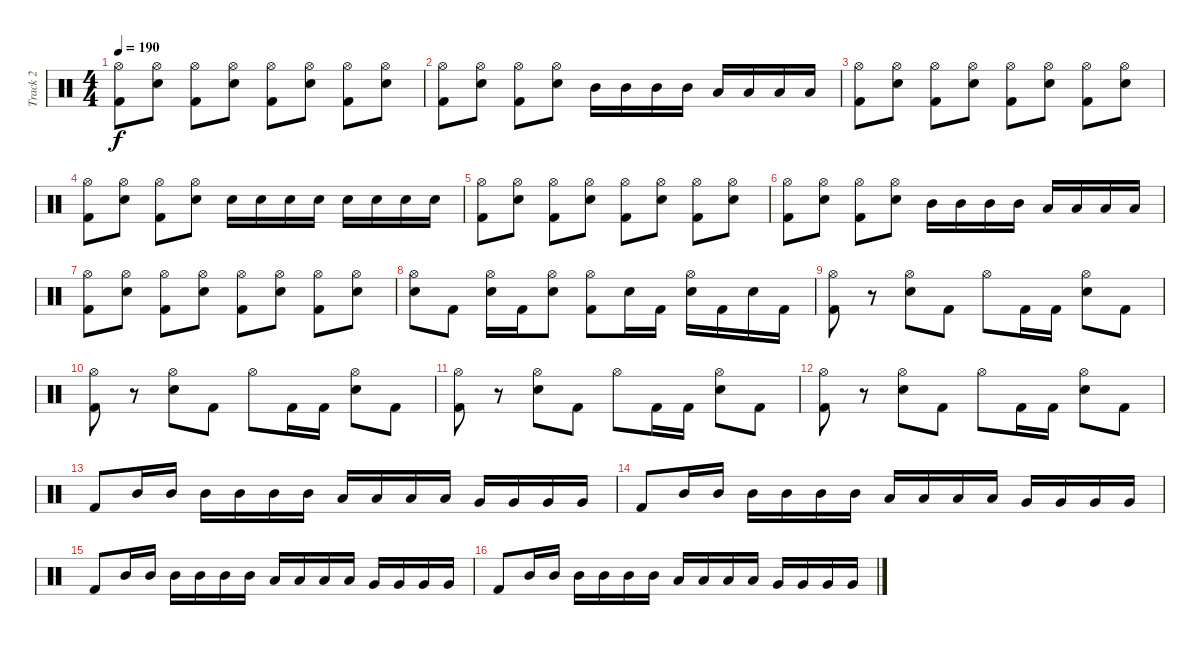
\track ("Track 2" "Track 2") {instrument percussion}
\staff {score}
\articulation defaults
\ts (4 4)
\tempo 190
\clef neutral
\ks c
("Hi-Hat (open)" "Kick (hit) 2").8{dy f} ("Hi-Hat (open)" "Snare (hit) 2").8 ("Hi-Hat (open)" "Kick (hit) 2").8 ("Hi-Hat (open)" "Snare (hit) 2").8 ("Hi-Hat (open)" "Kick (hit) 2").8 ("Hi-Hat (open)" "Snare (hit) 2").8 ("Hi-Hat (open)" "Kick (hit) 2").8 ("Hi-Hat (open)" "Snare (hit) 2").8 |
("Hi-Hat (open)" "Kick (hit) 2").8 ("Hi-Hat (open)" "Snare (hit) 2").8 ("Hi-Hat (open)" "Kick (hit) 2").8 ("Hi-Hat (open)" "Snare (hit) 2").8 "Mid Tom (hit)".16 "Mid Tom (hit)".16 "Mid Tom (hit)".16 "Mid Tom (hit)".16 "Low Tom (hit)".16 "Low Tom (hit)".16 "Low Tom (hit)".16 "Low Tom (hit)".16 |
("Hi-Hat (open)" "Kick (hit) 2").8 ("Hi-Hat (open)" "Snare (hit) 2").8 ("Hi-Hat (open)" "Kick (hit) 2").8 ("Hi-Hat (open)" "Snare (hit) 2").8 ("Hi-Hat (open)" "Kick (hit) 2").8 ("Hi-Hat (open)" "Snare (hit) 2").8 ("Hi-Hat (open)" "Kick (hit) 2").8 ("Hi-Hat (open)" "Snare (hit) 2").8 |
("Hi-Hat (open)" "Kick (hit) 2").8 ("Hi-Hat (open)" "Snare (hit) 2").8 ("Hi-Hat (open)" "Kick (hit) 2").8 ("Hi-Hat (open)" "Snare (hit) 2").8 "Snare (hit) 2".16 "Snare (hit) 2".16 "Snare (hit) 2".16 "Snare (hit) 2".16 "Snare (hit) 2".16 "Snare (hit) 2".16 "Snare (hit) 2".16 "Snare (hit) 2".16 |
("Hi-Hat (open)" "Kick (hit) 2").8 ("Hi-Hat (open)" "Snare (hit) 2").8 ("Hi-Hat (open)" "Kick (hit) 2").8 ("Hi-Hat (open)" "Snare (hit) 2").8 ("Hi-Hat (open)" "Kick (hit) 2").8 ("Hi-Hat (open)" "Snare (hit) 2").8 ("Hi-Hat (open)" "Kick (hit) 2").8 ("Hi-Hat (open)" "Snare (hit) 2").8 |
("Hi-Hat (open)" "Kick (hit) 2").8 ("Hi-Hat (open)" "Snare (hit) 2").8 ("Hi-Hat (open)" "Kick (hit) 2").8 ("Hi-Hat (open)" "Snare (hit) 2").8 "Mid Tom (hit)".16 "Mid Tom (hit)".16 "Mid Tom (hit)".16 "Mid Tom (hit)".16 "Low Tom (hit)".16 "Low Tom (hit)".16 "Low Tom (hit)".16 "Low Tom (hit)".16 |
("Hi-Hat (open)" "Kick (hit) 2").8 ("Hi-Hat (open)" "Snare (hit) 2").8 ("Hi-Hat (open)" "Kick (hit) 2").8 ("Hi-Hat (open)" "Snare (hit) 2").8 ("Hi-Hat (open)" "Kick (hit) 2").8 ("Hi-Hat (open)" "Snare (hit) 2").8 ("Hi-Hat (open)" "Kick (hit) 2").8 ("Hi-Hat (open)" "Snare (hit) 2").8 |
("Hi-Hat (open)" "Snare (hit) 2").8 "Kick (hit) 2".8 ("Hi-Hat (open)" "Snare (hit) 2").16 "Kick (hit) 2".16 ("Hi-Hat (open)" "Snare (hit) 2").8 ("Hi-Hat (open)" "Kick (hit) 2").8 "Snare (hit) 2".16 "Kick (hit) 2".16 ("Hi-Hat (open)" "Snare (hit) 2").16 "Kick (hit) 2".16 "Snare (hit) 2".16 "Kick (hit) 2".16 |
("Hi-Hat (open)" "Kick (hit) 2").8 r.8 ("Hi-Hat (open)" "Snare (hit) 2").8 "Kick (hit) 2".8 "Hi-Hat (open)".8 "Kick (hit) 2".16 "Kick (hit) 2".16 ("Hi-Hat (open)" "Snare (hit) 2").8 "Kick (hit) 2".8 |
("Hi-Hat (open)" "Kick (hit) 2").8 r.8 ("Hi-Hat (open)" "Snare (hit) 2").8 "Kick (hit) 2".8 "Hi-Hat (open)".8 "Kick (hit) 2".16 "Kick (hit) 2".16 ("Hi-Hat (open)" "Snare (hit) 2").8 "Kick (hit) 2".8 |
("Hi-Hat (open)" "Kick (hit) 2").8 r.8 ("Hi-Hat (open)" "Snare (hit) 2").8 "Kick (hit) 2".8 "Hi-Hat (open)".8 "Kick (hit) 2".16 "Kick (hit) 2".16 ("Hi-Hat (open)" "Snare (hit) 2").8 "Kick (hit) 2".8 |
("Hi-Hat (open)" "Kick (hit) 2").8 r.8 ("Hi-Hat (open)" "Snare (hit) 2").8 "Kick (hit) 2".8 "Hi-Hat (open)".8 "Kick (hit) 2".16 "Kick (hit) 2".16 ("Hi-Hat (open)" "Snare (hit) 2").8 "Kick (hit) 2".8 |
"Kick (hit) 2".8 "Mid Tom (hit)".16 "Mid Tom (hit)".16 "Mid Tom (hit)".16 "Mid Tom (hit)".16 "Mid Tom (hit)".16 "Mid Tom (hit)".16 "Low Tom (hit)".16 "Low Tom (hit)".16 "Low Tom (hit)".16 "Low Tom (hit)".16 "Very Low Tom (hit)".16 "Very Low Tom (hit)".16 "Very Low Tom (hit)".16 "Very Low Tom (hit)".16 |
"Kick (hit) 2".8 "Mid Tom (hit)".16 "Mid Tom (hit)".16 "Mid Tom (hit)".16 "Mid Tom (hit)".16 "Mid Tom (hit)".16 "Mid Tom (hit)".16 "Low Tom (hit)".16 "Low Tom (hit)".16 "Low Tom (hit)".16 "Low Tom (hit)".16 "Very Low Tom (hit)".16 "Very Low Tom (hit)".16 "Very Low Tom (hit)".16 "Very Low Tom (hit)".16 |
"Kick (hit) 2".8 "Mid Tom (hit)".16 "Mid Tom (hit)".16 "Mid Tom (hit)".16 "Mid Tom (hit)".16 "Mid Tom (hit)".16 "Mid Tom (hit)".16 "Low Tom (hit)".16 "Low Tom (hit)".16 "Low Tom (hit)".16 "Low Tom (hit)".16 "Very Low Tom (hit)".16 "Very Low Tom (hit)".16 "Very Low Tom (hit)".16 "Very Low Tom (hit)".16 |
"Kick (hit) 2".8 "Mid Tom (hit)".16 "Mid Tom (hit)".16 "Mid Tom (hit)".16 "Mid Tom (hit)".16 "Mid Tom (hit)".16 "Mid Tom (hit)".16 "Low Tom (hit)".16 "Low Tom (hit)".16 "Low Tom (hit)".16 "Low Tom (hit)".16 "Very Low Tom (hit)".16 "Very Low Tom (hit)".16 "Very Low Tom (hit)".16 "Very Low Tom (hit)".16
